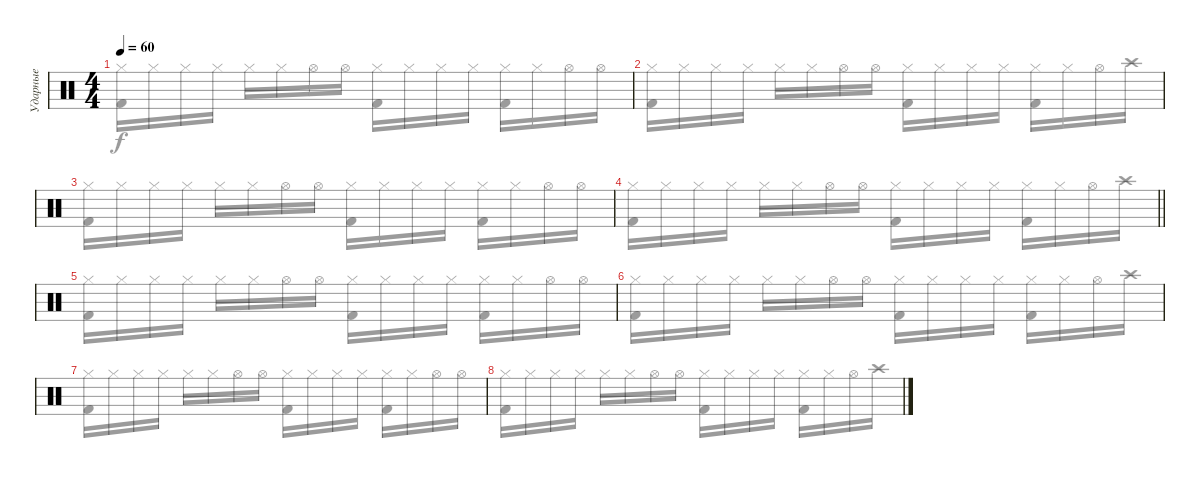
\track ("Ударные" "Ударные") {instrument percussion}
\staff {score}
\articulation defaults
\voice
\ts (4 4)
\tempo 60
\clef neutral
\ks c
|
|
|
\barLineRight lightlight
|
|
|
|
\voice
\clef neutral
\ks c
("Hi-Hat (closed)" "Kick (hit) 2").16{dy f} "Hi-Hat (closed)".16 "Hi-Hat (closed)".16 "Hi-Hat (closed)".16 "Hi-Hat (closed)".16 "Hi-Hat (closed)".16 "Hi-Hat (open)".16 "Hi-Hat (open)".16 ("Hi-Hat (closed)" "Kick (hit) 2").16 "Hi-Hat (closed)".16 "Hi-Hat (closed)".16 "Hi-Hat (closed)".16 ("Hi-Hat (closed)" "Kick (hit) 2").16 "Hi-Hat (closed)".16 "Hi-Hat (open)".16 "Hi-Hat (open)".16 |
("Hi-Hat (closed)" "Kick (hit) 2").16 "Hi-Hat (closed)".16 "Hi-Hat (closed)".16 "Hi-Hat (closed)".16 "Hi-Hat (closed)".16 "Hi-Hat (closed)".16 "Hi-Hat (open)".16 "Hi-Hat (open)".16 ("Hi-Hat (closed)" "Kick (hit) 2").16 "Hi-Hat (closed)".16 "Hi-Hat (closed)".16 "Hi-Hat (closed)".16 ("Hi-Hat (closed)" "Kick (hit) 2").16 "Hi-Hat (closed)".16 "Hi-Hat (open)".16 "Crash high (hit)".16 |
("Hi-Hat (closed)" "Kick (hit) 2").16 "Hi-Hat (closed)".16 "Hi-Hat (closed)".16 "Hi-Hat (closed)".16 "Hi-Hat (closed)".16 "Hi-Hat (closed)".16 "Hi-Hat (open)".16 "Hi-Hat (open)".16 ("Hi-Hat (closed)" "Kick (hit) 2").16 "Hi-Hat (closed)".16 "Hi-Hat (closed)".16 "Hi-Hat (closed)".16 ("Hi-Hat (closed)" "Kick (hit) 2").16 "Hi-Hat (closed)".16 "Hi-Hat (open)".16 "Hi-Hat (open)".16 |
\barLineRight lightlight
("Hi-Hat (closed)" "Kick (hit) 2").16 "Hi-Hat (closed)".16 "Hi-Hat (closed)".16 "Hi-Hat (closed)".16 "Hi-Hat (closed)".16 "Hi-Hat (closed)".16 "Hi-Hat (open)".16 "Hi-Hat (open)".16 ("Hi-Hat (closed)" "Kick (hit) 2").16 "Hi-Hat (closed)".16 "Hi-Hat (closed)".16 "Hi-Hat (closed)".16 ("Hi-Hat (closed)" "Kick (hit) 2").16 "Hi-Hat (closed)".16 "Hi-Hat (open)".16 "Crash high (hit)".16 |
("Hi-Hat (closed)" "Kick (hit) 2").16 "Hi-Hat (closed)".16 "Hi-Hat (closed)".16 "Hi-Hat (closed)".16 "Hi-Hat (closed)".16 "Hi-Hat (closed)".16 "Hi-Hat (open)".16 "Hi-Hat (open)".16 ("Hi-Hat (closed)" "Kick (hit) 2").16 "Hi-Hat (closed)".16 "Hi-Hat (closed)".16 "Hi-Hat (closed)".16 ("Hi-Hat (closed)" "Kick (hit) 2").16 "Hi-Hat (closed)".16 "Hi-Hat (open)".16 "Hi-Hat (open)".16 |
("Hi-Hat (closed)" "Kick (hit) 2").16 "Hi-Hat (closed)".16 "Hi-Hat (closed)".16 "Hi-Hat (closed)".16 "Hi-Hat (closed)".16 "Hi-Hat (closed)".16 "Hi-Hat (open)".16 "Hi-Hat (open)".16 ("Hi-Hat (closed)" "Kick (hit) 2").16 "Hi-Hat (closed)".16 "Hi-Hat (closed)".16 "Hi-Hat (closed)".16 ("Hi-Hat (closed)" "Kick (hit) 2").16 "Hi-Hat (closed)".16 "Hi-Hat (open)".16 "Crash high (hit)".16 |
("Hi-Hat (closed)" "Kick (hit) 2").16 "Hi-Hat (closed)".16 "Hi-Hat (closed)".16 "Hi-Hat (closed)".16 "Hi-Hat (closed)".16 "Hi-Hat (closed)".16 "Hi-Hat (open)".16 "Hi-Hat (open)".16 ("Hi-Hat (closed)" "Kick (hit) 2").16 "Hi-Hat (closed)".16 "Hi-Hat (closed)".16 "Hi-Hat (closed)".16 ("Hi-Hat (closed)" "Kick (hit) 2").16 "Hi-Hat (closed)".16 "Hi-Hat (open)".16 "Hi-Hat (open)".16 |
("Hi-Hat (closed)" "Kick (hit) 2").16 "Hi-Hat (closed)".16 "Hi-Hat (closed)".16 "Hi-Hat (closed)".16 "Hi-Hat (closed)".16 "Hi-Hat (closed)".16 "Hi-Hat (open)".16 "Hi-Hat (open)".16 ("Hi-Hat (closed)" "Kick (hit) 2").16 "Hi-Hat (closed)".16 "Hi-Hat (closed)".16 "Hi-Hat (closed)".16 ("Hi-Hat (closed)" "Kick (hit) 2").16 "Hi-Hat (closed)".16 "Hi-Hat (open)".16 "Crash high (hit)".16
